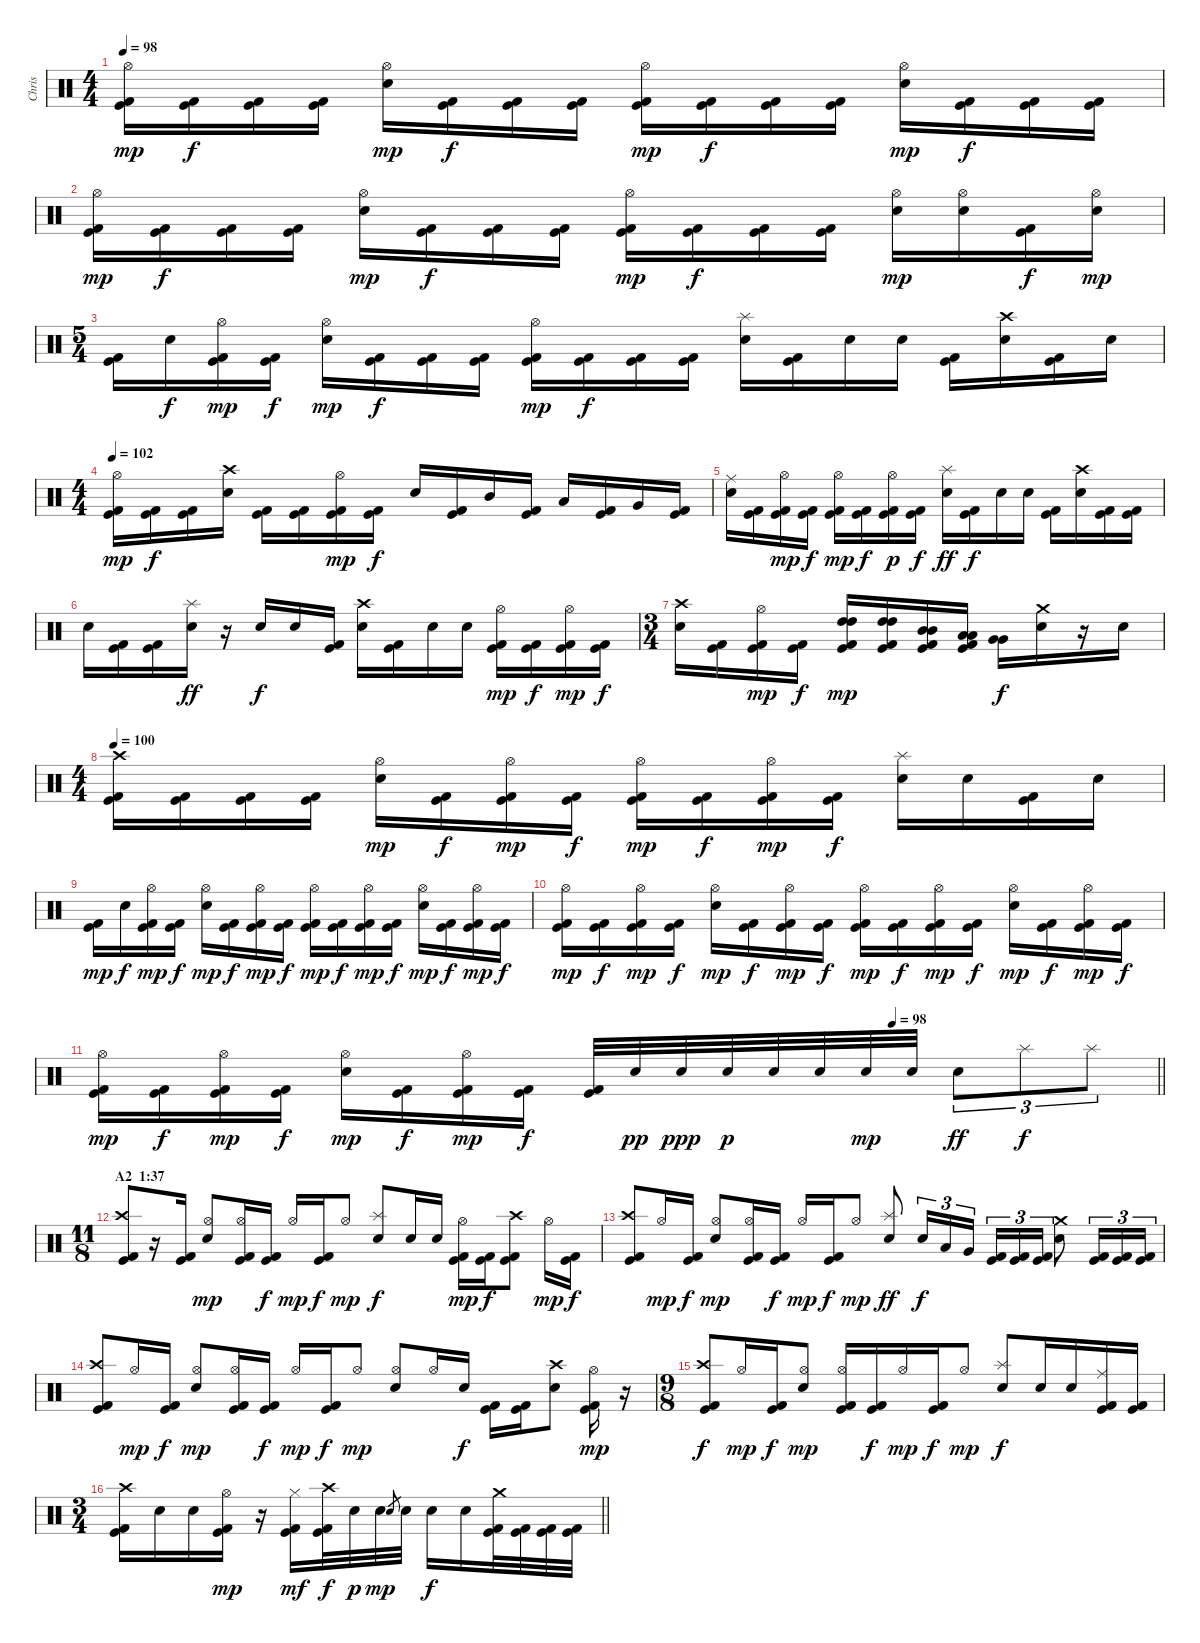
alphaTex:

\track ("Chris" "Chris") {instrument percussion}
\staff {score}
\articulation defaults
\ts (4 4)
\tempo 98
\clef neutral
\ks c
("Hi-Hat (open)" "Kick (hit)" "Kick (hit) 2").16{dy mp} ("Kick (hit)" "Kick (hit) 2").16{dy f} ("Kick (hit)" "Kick (hit) 2").16 ("Kick (hit)" "Kick (hit) 2").16 ("Hi-Hat (open)" "Electric Snare (hit)").16{dy mp} ("Kick (hit)" "Kick (hit) 2").16{dy f} ("Kick (hit)" "Kick (hit) 2").16 ("Kick (hit)" "Kick (hit) 2").16 ("Hi-Hat (open)" "Kick (hit)" "Kick (hit) 2").16{dy mp} ("Kick (hit)" "Kick (hit) 2").16{dy f} ("Kick (hit)" "Kick (hit) 2").16 ("Kick (hit)" "Kick (hit) 2").16 ("Hi-Hat (open)" "Electric Snare (hit)").16{dy mp} ("Kick (hit)" "Kick (hit) 2").16{dy f} ("Kick (hit)" "Kick (hit) 2").16 ("Kick (hit)" "Kick (hit) 2").16 |
("Hi-Hat (open)" "Kick (hit)" "Kick (hit) 2").16{dy mp} ("Kick (hit)" "Kick (hit) 2").16{dy f} ("Kick (hit)" "Kick (hit) 2").16 ("Kick (hit)" "Kick (hit) 2").16 ("Hi-Hat (open)" "Electric Snare (hit)").16{dy mp} ("Kick (hit)" "Kick (hit) 2").16{dy f} ("Kick (hit)" "Kick (hit) 2").16 ("Kick (hit)" "Kick (hit) 2").16 ("Hi-Hat (open)" "Kick (hit)" "Kick (hit) 2").16{dy mp} ("Kick (hit)" "Kick (hit) 2").16{dy f} ("Kick (hit)" "Kick (hit) 2").16 ("Kick (hit)" "Kick (hit) 2").16 ("Hi-Hat (open)" "Electric Snare (hit)").16{dy mp} ("Hi-Hat (open)" "Electric Snare (hit)").16 ("Kick (hit)" "Kick (hit) 2").16{dy f} ("Hi-Hat (open)" "Electric Snare (hit)").16{dy mp} |
\ts (5 4)
("Kick (hit)" "Kick (hit) 2").16 "Electric Snare (hit)".16{dy f} ("Hi-Hat (open)" "Kick (hit)" "Kick (hit) 2").16{dy mp} ("Kick (hit)" "Kick (hit) 2").16{dy f} ("Hi-Hat (open)" "Electric Snare (hit)").16{dy mp} ("Kick (hit)" "Kick (hit) 2").16{dy f} ("Kick (hit)" "Kick (hit) 2").16 ("Kick (hit)" "Kick (hit) 2").16 ("Hi-Hat (open)" "Kick (hit)" "Kick (hit) 2").16{dy mp} ("Kick (hit)" "Kick (hit) 2").16{dy f} ("Kick (hit)" "Kick (hit) 2").16 ("Kick (hit)" "Kick (hit) 2").16 ("Splash (hit)" "Electric Snare (hit)").16 ("Kick (hit)" "Kick (hit) 2").16 "Electric Snare (hit)".16 "Electric Snare (hit)".16 ("Kick (hit)" "Kick (hit) 2").16 ("Crash high (hit)" "Electric Snare (hit)").16 ("Kick (hit)" "Kick (hit) 2").16 "Electric Snare (hit)".16 |
\ts (4 4)
\tempo 102
("Hi-Hat (open)" "Kick (hit)" "Kick (hit) 2").16{dy mp} ("Kick (hit)" "Kick (hit) 2").16{dy f} ("Kick (hit)" "Kick (hit) 2").16 ("Crash high (hit)" "Electric Snare (hit)").16 ("Kick (hit)" "Kick (hit) 2").16 ("Kick (hit)" "Kick (hit) 2").16 ("Hi-Hat (open)" "Kick (hit)" "Kick (hit) 2").16{dy mp} ("Kick (hit)" "Kick (hit) 2").16{dy f} "Electric Snare (hit)".16 ("Kick (hit)" "Kick (hit) 2").16 "Mid Tom (hit)".16 ("Kick (hit)" "Kick (hit) 2").16 "Low Tom (hit)".16 ("Kick (hit)" "Kick (hit) 2").16 "Very Low Tom (hit)".16 ("Kick (hit)" "Kick (hit) 2").16 |
("Ride (middle)" "Electric Snare (hit)").16 ("Kick (hit)" "Kick (hit) 2").16 ("Hi-Hat (open)" "Kick (hit)" "Kick (hit) 2").16{dy mp} ("Kick (hit)" "Kick (hit) 2").16{dy f} ("Hi-Hat (open)" "Kick (hit)" "Kick (hit) 2").16{dy mp} ("Kick (hit)" "Kick (hit) 2").16{dy f} ("Hi-Hat (open)" "Kick (hit)" "Kick (hit) 2").16{dy p} ("Kick (hit)" "Kick (hit) 2").16{dy f} ("Splash (hit)" "Electric Snare (hit)").16{dy ff} ("Kick (hit)" "Kick (hit) 2").16{dy f} "Electric Snare (hit)".16 "Electric Snare (hit)".16 ("Kick (hit)" "Kick (hit) 2").16 ("Crash high (hit)" "Electric Snare (hit)").16 ("Kick (hit)" "Kick (hit) 2").16 ("Kick (hit)" "Kick (hit) 2").16 |
"Electric Snare (hit)".16 ("Kick (hit)" "Kick (hit) 2").16 ("Kick (hit)" "Kick (hit) 2").16 ("Splash (hit)" "Electric Snare (hit)").16{dy ff} r.16 "Electric Snare (hit)".16{dy f} "Electric Snare (hit)".16 ("Kick (hit)" "Kick (hit) 2").16 ("Crash high (hit)" "Electric Snare (hit)").16 ("Kick (hit)" "Kick (hit) 2").16 "Electric Snare (hit)".16 "Electric Snare (hit)".16 ("Hi-Hat (open)" "Kick (hit)" "Kick (hit) 2").16{dy mp} ("Kick (hit)" "Kick (hit) 2").16{dy f} ("Hi-Hat (open)" "Kick (hit)" "Kick (hit) 2").16{dy mp} ("Kick (hit)" "Kick (hit) 2").16{dy f} |
\ts (3 4)
("Crash high (hit)" "Electric Snare (hit)").16 ("Kick (hit)" "Kick (hit) 2").16 ("Hi-Hat (open)" "Kick (hit)" "Kick (hit) 2").16{dy mp} ("Kick (hit)" "Kick (hit) 2").16{dy f} ("High Tom (hit)" "High Tom (hit)" "Kick (hit)" "Kick (hit) 2").16{dy mp} ("High Tom (hit)" "High Tom (hit)" "Kick (hit)" "Kick (hit) 2").16 ("Mid Tom (hit)" "Mid Tom (hit)" "Kick (hit)" "Kick (hit) 2").16 ("Low Tom (hit)" "Low Tom (hit)" "Kick (hit)" "Kick (hit) 2").16 ("Very Low Tom (hit)" "Very Low Tom (hit)").16{dy f} ("Crash medium (hit)" "Electric Snare (hit)").16 r.16 "Electric Snare (hit)".16 |
\ts (4 4)
\tempo 100
("Crash high (hit)" "Kick (hit)" "Kick (hit) 2").16 ("Kick (hit)" "Kick (hit) 2").16 ("Kick (hit)" "Kick (hit) 2").16 ("Kick (hit)" "Kick (hit) 2").16 ("Hi-Hat (open)" "Electric Snare (hit)").16{dy mp} ("Kick (hit)" "Kick (hit) 2").16{dy f} ("Hi-Hat (open)" "Kick (hit)" "Kick (hit) 2").16{dy mp} ("Kick (hit)" "Kick (hit) 2").16{dy f} ("Hi-Hat (open)" "Kick (hit)" "Kick (hit) 2").16{dy mp} ("Kick (hit)" "Kick (hit) 2").16{dy f} ("Hi-Hat (open)" "Kick (hit)" "Kick (hit) 2").16{dy mp} ("Kick (hit)" "Kick (hit) 2").16{dy f} ("Splash (hit)" "Electric Snare (hit)").16 "Electric Snare (hit)".16 ("Kick (hit)" "Kick (hit) 2").16 "Electric Snare (hit)".16 |
("Kick (hit)" "Kick (hit) 2").16{dy mp} "Electric Snare (hit)".16{dy f} ("Hi-Hat (open)" "Kick (hit)" "Kick (hit) 2").16{dy mp} ("Kick (hit)" "Kick (hit) 2").16{dy f} ("Hi-Hat (open)" "Electric Snare (hit)").16{dy mp} ("Kick (hit)" "Kick (hit) 2").16{dy f} ("Hi-Hat (open)" "Kick (hit)" "Kick (hit) 2").16{dy mp} ("Kick (hit)" "Kick (hit) 2").16{dy f} ("Hi-Hat (open)" "Kick (hit)" "Kick (hit) 2").16{dy mp} ("Kick (hit)" "Kick (hit) 2").16{dy f} ("Hi-Hat (open)" "Kick (hit)" "Kick (hit) 2").16{dy mp} ("Kick (hit)" "Kick (hit) 2").16{dy f} ("Hi-Hat (open)" "Electric Snare (hit)").16{dy mp} ("Kick (hit)" "Kick (hit) 2").16{dy f} ("Hi-Hat (open)" "Kick (hit)" "Kick (hit) 2").16{dy mp} ("Kick (hit)" "Kick (hit) 2").16{dy f} |
("Hi-Hat (open)" "Kick (hit)" "Kick (hit) 2").16{dy mp} ("Kick (hit)" "Kick (hit) 2").16{dy f} ("Hi-Hat (open)" "Kick (hit)" "Kick (hit) 2").16{dy mp} ("Kick (hit)" "Kick (hit) 2").16{dy f} ("Hi-Hat (open)" "Electric Snare (hit)").16{dy mp} ("Kick (hit)" "Kick (hit) 2").16{dy f} ("Hi-Hat (open)" "Kick (hit)" "Kick (hit) 2").16{dy mp} ("Kick (hit)" "Kick (hit) 2").16{dy f} ("Hi-Hat (open)" "Kick (hit)" "Kick (hit) 2").16{dy mp} ("Kick (hit)" "Kick (hit) 2").16{dy f} ("Hi-Hat (open)" "Kick (hit)" "Kick (hit) 2").16{dy mp} ("Kick (hit)" "Kick (hit) 2").16{dy f} ("Hi-Hat (open)" "Electric Snare (hit)").16{dy mp} ("Kick (hit)" "Kick (hit) 2").16{dy f} ("Hi-Hat (open)" "Kick (hit)" "Kick (hit) 2").16{dy mp} ("Kick (hit)" "Kick (hit) 2").16{dy f} |
\tempo (98 0.75)
\barLineRight lightlight
("Hi-Hat (open)" "Kick (hit)" "Kick (hit) 2").16{dy mp} ("Kick (hit)" "Kick (hit) 2").16{dy f} ("Hi-Hat (open)" "Kick (hit)" "Kick (hit) 2").16{dy mp} ("Kick (hit)" "Kick (hit) 2").16{dy f} ("Hi-Hat (open)" "Electric Snare (hit)").16{dy mp} ("Kick (hit)" "Kick (hit) 2").16{dy f} ("Hi-Hat (open)" "Kick (hit)" "Kick (hit) 2").16{dy mp} ("Kick (hit)" "Kick (hit) 2").16{dy f} ("Kick (hit)" "Kick (hit) 2").32 "Electric Snare (hit)".32{dy pp} "Electric Snare (hit)".32{dy ppp} "Electric Snare (hit)".32{dy p} "Electric Snare (hit)".32 "Electric Snare (hit)".32 "Electric Snare (hit)".32{dy mp} "Electric Snare (hit)".32 "Electric Snare (hit)".8{tu (3 2) dy ff} "Splash (hit)".8{tu (3 2) dy f} "Splash (hit)".8{tu (3 2)} |
\ts (11 8)
\section ("" "A2  1:37")
("Crash high (hit)" "Kick (hit)" "Kick (hit) 2").8{beam Up} r.16{beam Up} ("Kick (hit)" "Kick (hit) 2").16 ("Hi-Hat (open)" "Electric Snare (hit)").8{dy mp beam Up} ("Hi-Hat (open)" "Kick (hit)" "Kick (hit) 2").16{beam Up} ("Kick (hit)" "Kick (hit) 2").16{dy f} "Hi-Hat (open)".16{dy mp beam Up} ("Kick (hit)" "Kick (hit) 2").16{dy f} "Hi-Hat (open)".8{dy mp beam Up} ("Splash (hit)" "Electric Snare (hit)").8{dy f beam Up} "Electric Snare (hit)".16{beam Up} "Electric Snare (hit)".16 ("Hi-Hat (open)" "Kick (hit)" "Kick (hit) 2").16{dy mp} ("Kick (hit)" "Kick (hit) 2").16{dy f} ("Crash high (hit)" "Kick (hit)" "Kick (hit) 2").8 "Hi-Hat (open)".16{dy mp} ("Kick (hit)" "Kick (hit) 2").16{dy f} |
("Crash high (hit)" "Kick (hit)" "Kick (hit) 2").8{beam Up} "Hi-Hat (open)".16{dy mp beam Up} ("Kick (hit)" "Kick (hit) 2").16{dy f} ("Hi-Hat (open)" "Electric Snare (hit)").8{dy mp beam Up} ("Hi-Hat (open)" "Kick (hit)" "Kick (hit) 2").16{beam Up} ("Kick (hit)" "Kick (hit) 2").16{dy f} "Hi-Hat (open)".16{dy mp beam Up} ("Kick (hit)" "Kick (hit) 2").16{dy f} "Hi-Hat (open)".8{dy mp beam Up} ("Splash (hit)" "Electric Snare (hit)").8{dy ff beam Up} "Electric Snare (hit)".16{tu (3 2) dy f beam Up} "Low Tom (hit)".16{tu (3 2)} "Very Low Tom (hit)".16{tu (3 2)} ("Kick (hit)" "Kick (hit) 2").16{tu (3 2)} ("Kick (hit)" "Kick (hit) 2").16{tu (3 2)} ("Kick (hit)" "Kick (hit) 2").16{tu (3 2)} ("Crash medium (hit)" "Electric Snare (hit)").8 ("Kick (hit)" "Kick (hit) 2").16{tu (3 2)} ("Kick (hit)" "Kick (hit) 2").16{tu (3 2)} ("Kick (hit)" "Kick (hit) 2").16{tu (3 2)} |
("Crash high (hit)" "Kick (hit)" "Kick (hit) 2").8{beam Up} "Hi-Hat (open)".16{dy mp beam Up} ("Kick (hit)" "Kick (hit) 2").16{dy f} ("Hi-Hat (open)" "Electric Snare (hit)").8{dy mp beam Up} ("Hi-Hat (open)" "Kick (hit)" "Kick (hit) 2").16{beam Up} ("Kick (hit)" "Kick (hit) 2").16{dy f} "Hi-Hat (open)".16{dy mp beam Up} ("Kick (hit)" "Kick (hit) 2").16{dy f} "Hi-Hat (open)".8{dy mp beam Up} ("Hi-Hat (open)" "Electric Snare (hit)").8{beam Up} "Hi-Hat (open)".16{beam Up} "Electric Snare (hit)".16{dy f} ("Kick (hit)" "Kick (hit) 2").16 ("Kick (hit)" "Kick (hit) 2").16 ("Crash high (hit)" "Electric Snare (hit)").8 ("Hi-Hat (open)" "Kick (hit)" "Kick (hit) 2").16{dy mp} r.16 |
\ts (9 8)
("Crash high (hit)" "Kick (hit)" "Kick (hit) 2").8{dy f beam Up} "Hi-Hat (open)".16{dy mp beam Up} ("Kick (hit)" "Kick (hit) 2").16{dy f} ("Hi-Hat (open)" "Electric Snare (hit)").8{dy mp beam Up} ("Hi-Hat (open)" "Kick (hit)" "Kick (hit) 2").16{beam Up} ("Kick (hit)" "Kick (hit) 2").16{dy f} "Hi-Hat (open)".16{dy mp beam Up} ("Kick (hit)" "Kick (hit) 2").16{dy f} "Hi-Hat (open)".8{dy mp beam Up} ("Splash (hit)" "Electric Snare (hit)").8{dy f beam Up} "Electric Snare (hit)".16{beam Up} "Electric Snare (hit)".16 ("Ride (middle)" "Kick (hit)" "Kick (hit) 2").16 ("Kick (hit)" "Kick (hit) 2").16 |
\ts (3 4)
\barLineRight lightlight
("Crash high (hit)" "Kick (hit)" "Kick (hit) 2").16 "Electric Snare (hit)".16 "Electric Snare (hit)".16 ("Hi-Hat (open)" "Kick (hit)" "Kick (hit) 2").16{dy mp} r.16 ("Hi-Hat (closed)" "Kick (hit)" "Kick (hit) 2").16{dy mf} ("Crash high (hit)" "Kick (hit)" "Kick (hit) 2").32{dy f} "Electric Snare (hit)".32{dy p} "Electric Snare (hit)".32{dy mp} "Electric Snare (hit)".8{gr} "Electric Snare (hit)".32 "Electric Snare (hit)".16{dy f} "Electric Snare (hit)".16 ("Crash medium (hit)" "Kick (hit)" "Kick (hit) 2").32 ("Kick (hit)" "Kick (hit) 2").32 ("Kick (hit)" "Kick (hit) 2").32 ("Kick (hit)" "Kick (hit) 2").32
